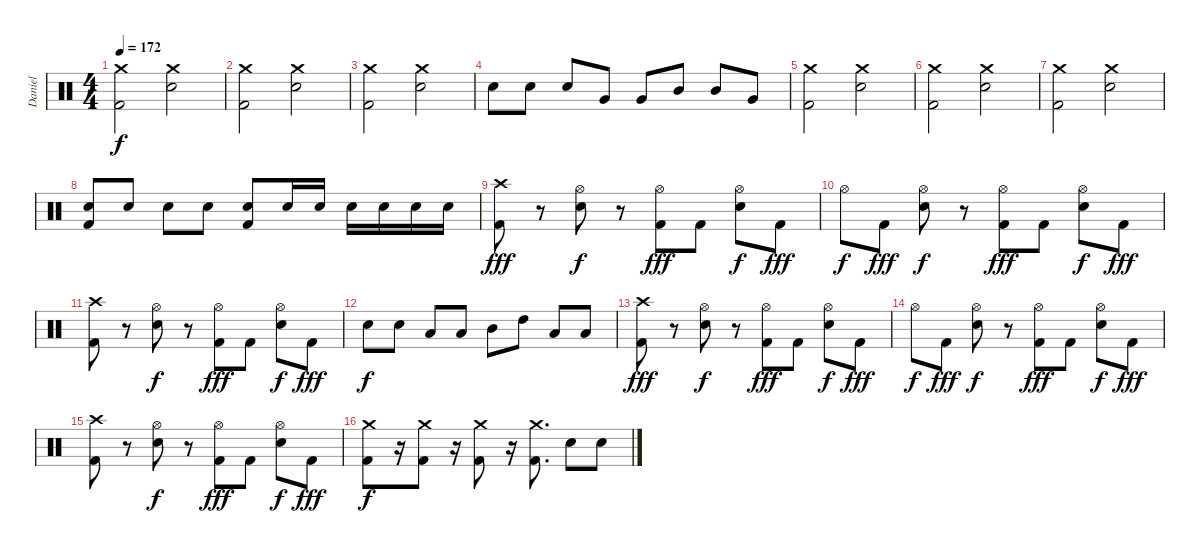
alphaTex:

\track ("Daniel" "Daniel") {instrument percussion}
\staff {score}
\articulation defaults
\ts (4 4)
\tempo 172
\clef neutral
\ks c
("Crash medium (hit)" "Kick (hit) 2").2{dy f} ("Crash medium (hit)" "Electric Snare (hit)").2 |
("Crash medium (hit)" "Kick (hit) 2").2 ("Crash medium (hit)" "Electric Snare (hit)").2 |
("Crash medium (hit)" "Kick (hit) 2").2 ("Crash medium (hit)" "Electric Snare (hit)").2 |
"Electric Snare (hit)".8 "Electric Snare (hit)".8 "Electric Snare (hit)".8 "Very Low Tom (hit)".8 "Very Low Tom (hit)".8 "Mid Tom (hit)".8 "Mid Tom (hit)".8 "Very Low Tom (hit)".8 |
("Crash medium (hit)" "Kick (hit) 2").2 ("Crash medium (hit)" "Electric Snare (hit)").2 |
("Crash medium (hit)" "Kick (hit) 2").2 ("Crash medium (hit)" "Electric Snare (hit)").2 |
("Crash medium (hit)" "Kick (hit) 2").2 ("Crash medium (hit)" "Electric Snare (hit)").2 |
("Electric Snare (hit)" "Kick (hit) 2").8 "Electric Snare (hit)".8 "Electric Snare (hit)".8 "Electric Snare (hit)".8 ("Electric Snare (hit)" "Kick (hit) 2").8 "Electric Snare (hit)".16 "Electric Snare (hit)".16 "Electric Snare (hit)".16 "Electric Snare (hit)".16 "Electric Snare (hit)".16 "Electric Snare (hit)".16 |
("Crash high (hit)" "Kick (hit) 2").8{dy fff} r.8 ("Hi-Hat (open)" "Electric Snare (hit)").8{dy f} r.8 ("Hi-Hat (open)" "Kick (hit) 2").8{dy fff} "Kick (hit) 2".8 ("Hi-Hat (open)" "Electric Snare (hit)").8{dy f} "Kick (hit) 2".8{dy fff} |
"Hi-Hat (open)".8{dy f} "Kick (hit) 2".8{dy fff} ("Hi-Hat (open)" "Electric Snare (hit)").8{dy f} r.8 ("Hi-Hat (open)" "Kick (hit) 2").8{dy fff} "Kick (hit) 2".8 ("Hi-Hat (open)" "Electric Snare (hit)").8{dy f} "Kick (hit) 2".8{dy fff} |
("Crash high (hit)" "Kick (hit) 2").8 r.8 ("Hi-Hat (open)" "Electric Snare (hit)").8{dy f} r.8 ("Hi-Hat (open)" "Kick (hit) 2").8{dy fff} "Kick (hit) 2".8 ("Hi-Hat (open)" "Electric Snare (hit)").8{dy f} "Kick (hit) 2".8{dy fff} |
"Electric Snare (hit)".8{dy f} "Electric Snare (hit)".8 "Low Tom (hit)".8 "Low Tom (hit)".8 "Mid Tom (hit)".8 "High Tom (hit)".8 "Low Tom (hit)".8 "Low Tom (hit)".8 |
("Crash high (hit)" "Kick (hit) 2").8{dy fff} r.8 ("Hi-Hat (open)" "Electric Snare (hit)").8{dy f} r.8 ("Hi-Hat (open)" "Kick (hit) 2").8{dy fff} "Kick (hit) 2".8 ("Hi-Hat (open)" "Electric Snare (hit)").8{dy f} "Kick (hit) 2".8{dy fff} |
"Hi-Hat (open)".8{dy f} "Kick (hit) 2".8{dy fff} ("Hi-Hat (open)" "Electric Snare (hit)").8{dy f} r.8 ("Hi-Hat (open)" "Kick (hit) 2").8{dy fff} "Kick (hit) 2".8 ("Hi-Hat (open)" "Electric Snare (hit)").8{dy f} "Kick (hit) 2".8{dy fff} |
("Crash high (hit)" "Kick (hit) 2").8 r.8 ("Hi-Hat (open)" "Electric Snare (hit)").8{dy f} r.8 ("Hi-Hat (open)" "Kick (hit) 2").8{dy fff} "Kick (hit) 2".8 ("Hi-Hat (open)" "Electric Snare (hit)").8{dy f} "Kick (hit) 2".8{dy fff} |
("Crash medium (hit)" "Kick (hit) 2").8{dy f} r.16 ("Crash medium (hit)" "Kick (hit) 2").8 r.16 ("Crash medium (hit)" "Kick (hit) 2").8 r.16 ("Crash medium (hit)" "Kick (hit) 2").8{d} "Electric Snare (hit)".8 "Electric Snare (hit)".8
